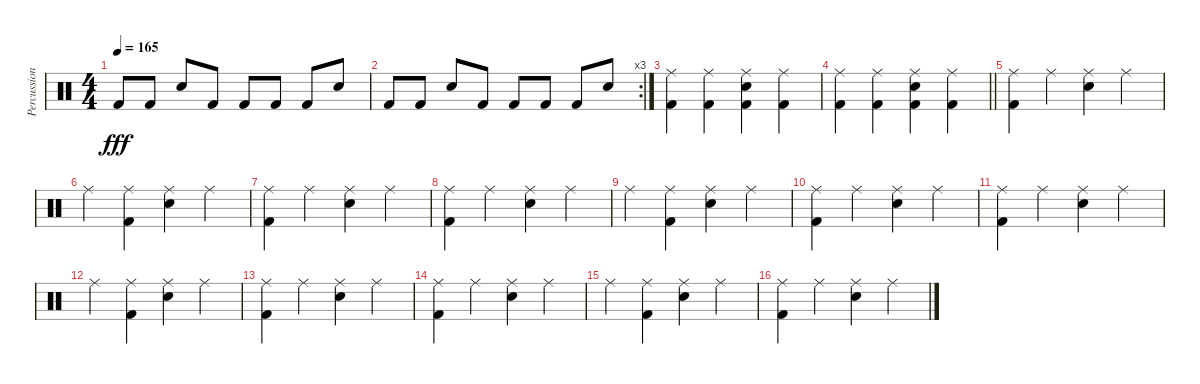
\track ("Percussion" "Percussion") {instrument percussion}
\staff {score}
\articulation defaults
\ts (4 4)
\tempo 165
\clef neutral
\ks c "Kick (hit) 2".8{dy fff} "Kick (hit) 2".8 "Snare (hit) 2".8 "Kick (hit) 2".8 "Kick (hit) 2".8 "Kick (hit) 2".8 "Kick (hit) 2".8 "Snare (hit) 2".8
|
\rc 3 "Kick (hit) 2".8 "Kick (hit) 2".8 "Snare (hit) 2".8 "Kick (hit) 2".8 "Kick (hit) 2".8 "Kick (hit) 2".8 "Kick (hit) 2".8 "Snare (hit) 2".8
|
("Kick (hit) 2" "Ride (middle)").4 ("Kick (hit) 2" "Ride (middle)").4 ("Kick (hit) 2" "Ride (middle)" "Snare (hit) 2").4 ("Kick (hit) 2" "Ride (middle)").4 |
\barLineRight lightlight
("Kick (hit) 2" "Ride (middle)").4 ("Kick (hit) 2" "Ride (middle)").4 ("Kick (hit) 2" "Ride (middle)" "Snare (hit) 2").4 ("Kick (hit) 2" "Ride (middle)").4 |
("Kick (hit) 2" "Ride (middle)").4 "Ride (middle)".4 ("Snare (hit) 2" "Ride (middle)").4 "Ride (middle)".4 |
"Ride (middle)".4 ("Kick (hit) 2" "Ride (middle)").4 ("Snare (hit) 2" "Ride (middle)").4 "Ride (middle)".4 |
("Kick (hit) 2" "Ride (middle)").4 "Ride (middle)".4 ("Snare (hit) 2" "Ride (middle)").4 "Ride (middle)".4 |
("Kick (hit) 2" "Ride (middle)").4 "Ride (middle)".4 ("Snare (hit) 2" "Ride (middle)").4 "Ride (middle)".4 |
"Ride (middle)".4 ("Kick (hit) 2" "Ride (middle)").4 ("Snare (hit) 2" "Ride (middle)").4 "Ride (middle)".4 |
("Kick (hit) 2" "Ride (middle)").4 "Ride (middle)".4 ("Snare (hit) 2" "Ride (middle)").4 "Ride (middle)".4 |
("Kick (hit) 2" "Ride (middle)").4 "Ride (middle)".4 ("Snare (hit) 2" "Ride (middle)").4 "Ride (middle)".4 |
"Ride (middle)".4 ("Kick (hit) 2" "Ride (middle)").4 ("Snare (hit) 2" "Ride (middle)").4 "Ride (middle)".4 |
("Kick (hit) 2" "Ride (middle)").4 "Ride (middle)".4 ("Snare (hit) 2" "Ride (middle)").4 "Ride (middle)".4 |
("Kick (hit) 2" "Ride (middle)").4 "Ride (middle)".4 ("Snare (hit) 2" "Ride (middle)").4 "Ride (middle)".4 |
"Ride (middle)".4 ("Kick (hit) 2" "Ride (middle)").4 ("Snare (hit) 2" "Ride (middle)").4 "Ride (middle)".4 |
("Kick (hit) 2" "Ride (middle)").4 "Ride (middle)".4 ("Snare (hit) 2" "Ride (middle)").4 "Ride (middle)".4
